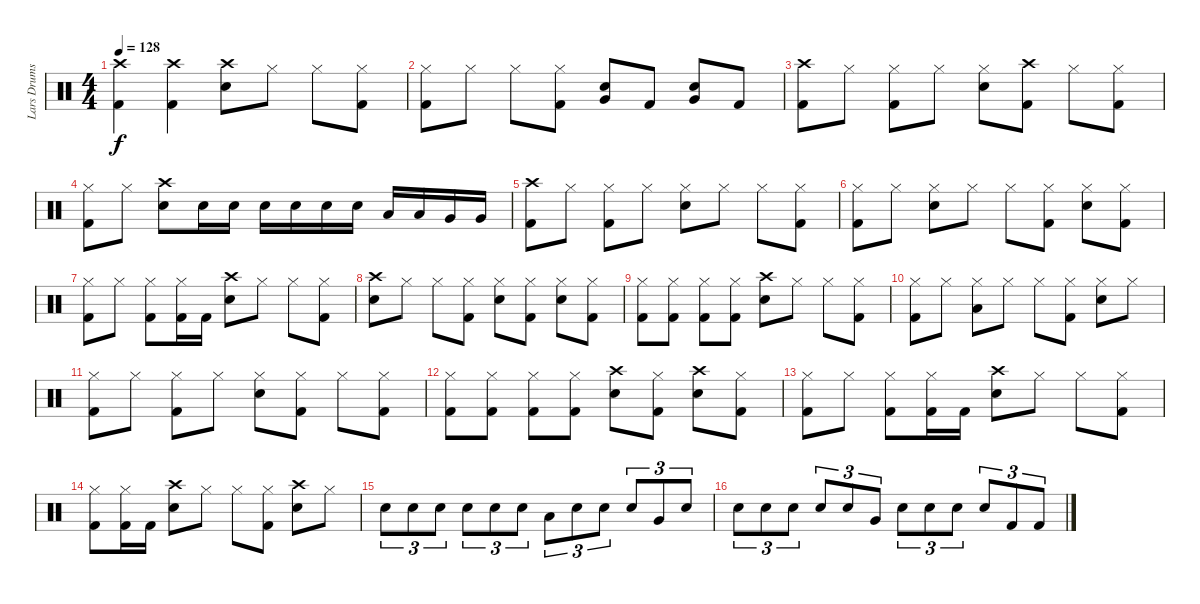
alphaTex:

\track ("Lars Drums" "Lars Drums") {instrument percussion}
\staff {score}
\articulation defaults
\ts (4 4)
\tempo 128
\clef neutral
\ks c
("Crash high (hit)" "Kick (hit) 2").4{dy f} ("Crash high (hit)" "Kick (hit) 2").4 ("Crash high (hit)" "Electric Snare (hit)").8 "Hi-Hat (closed)".8 "Hi-Hat (closed)".8 ("Hi-Hat (closed)" "Kick (hit) 2").8 |
("Hi-Hat (closed)" "Kick (hit) 2").8 "Hi-Hat (closed)".8 "Hi-Hat (closed)".8 ("Hi-Hat (closed)" "Kick (hit) 2").8 ("Electric Snare (hit)" "Very Low Tom (hit)").8 "Kick (hit) 2".8 ("Electric Snare (hit)" "Very Low Tom (hit)").8 "Kick (hit) 2".8 |
("Crash high (hit)" "Kick (hit) 2").8 "Hi-Hat (closed)".8 ("Hi-Hat (closed)" "Kick (hit) 2").8 "Hi-Hat (closed)".8 ("Hi-Hat (closed)" "Electric Snare (hit)").8 ("Crash high (hit)" "Kick (hit) 2").8 "Hi-Hat (closed)".8 ("Hi-Hat (closed)" "Kick (hit) 2").8 |
("Hi-Hat (closed)" "Kick (hit) 2").8 "Hi-Hat (closed)".8 ("Crash high (hit)" "Electric Snare (hit)").8 "Electric Snare (hit)".16 "Electric Snare (hit)".16 "Electric Snare (hit)".16 "Electric Snare (hit)".16 "Electric Snare (hit)".16 "Electric Snare (hit)".16 "Low Floor Tom (hit)".16 "Low Floor Tom (hit)".16 "Very Low Tom (hit)".16 "Very Low Tom (hit)".16 |
("Crash high (hit)" "Kick (hit) 2").8 "Hi-Hat (closed)".8 ("Hi-Hat (closed)" "Kick (hit) 2").8 "Hi-Hat (closed)".8 ("Hi-Hat (closed)" "Electric Snare (hit)").8 "Hi-Hat (closed)".8 "Hi-Hat (closed)".8 ("Hi-Hat (closed)" "Kick (hit) 2").8 |
("Hi-Hat (closed)" "Kick (hit) 2").8 "Hi-Hat (closed)".8 ("Hi-Hat (closed)" "Electric Snare (hit)").8 "Hi-Hat (closed)".8 "Hi-Hat (closed)".8 ("Hi-Hat (closed)" "Kick (hit) 2").8 ("Hi-Hat (closed)" "Electric Snare (hit)").8 ("Hi-Hat (closed)" "Kick (hit) 2").8 |
("Hi-Hat (closed)" "Kick (hit) 2").8 "Hi-Hat (closed)".8 ("Hi-Hat (closed)" "Kick (hit) 2").8 ("Hi-Hat (closed)" "Kick (hit) 2").16 "Kick (hit) 2".16 ("Crash high (hit)" "Electric Snare (hit)").8 "Hi-Hat (closed)".8 "Hi-Hat (closed)".8 ("Hi-Hat (closed)" "Kick (hit) 2").8 |
("Crash high (hit)" "Electric Snare (hit)").8 "Hi-Hat (closed)".8 "Hi-Hat (closed)".8 ("Hi-Hat (closed)" "Kick (hit) 2").8 ("Hi-Hat (closed)" "Electric Snare (hit)").8 ("Hi-Hat (closed)" "Kick (hit) 2").8 ("Hi-Hat (closed)" "Electric Snare (hit)").8 ("Hi-Hat (closed)" "Kick (hit) 2").8 |
("Hi-Hat (closed)" "Kick (hit) 2").8 ("Hi-Hat (closed)" "Kick (hit) 2").8 ("Hi-Hat (closed)" "Kick (hit) 2").8 ("Hi-Hat (closed)" "Kick (hit) 2").8 ("Crash high (hit)" "Electric Snare (hit)").8 "Hi-Hat (closed)".8 "Hi-Hat (closed)".8 ("Hi-Hat (closed)" "Kick (hit) 2").8 |
("Hi-Hat (closed)" "Kick (hit) 2").8 "Hi-Hat (closed)".8 ("Hi-Hat (closed)" "Low Floor Tom (hit)").8 "Hi-Hat (closed)".8 "Hi-Hat (closed)".8 ("Hi-Hat (closed)" "Kick (hit) 2").8 ("Hi-Hat (closed)" "Electric Snare (hit)").8 "Hi-Hat (closed)".8 |
("Hi-Hat (closed)" "Kick (hit) 2").8 "Hi-Hat (closed)".8 ("Hi-Hat (closed)" "Kick (hit) 2").8 "Hi-Hat (closed)".8 ("Hi-Hat (closed)" "Electric Snare (hit)").8 ("Hi-Hat (closed)" "Kick (hit) 2").8 "Hi-Hat (closed)".8 ("Hi-Hat (closed)" "Kick (hit) 2").8 |
("Hi-Hat (closed)" "Kick (hit) 2").8 ("Hi-Hat (closed)" "Kick (hit) 2").8 ("Hi-Hat (closed)" "Kick (hit) 2").8 ("Hi-Hat (closed)" "Kick (hit) 2").8 ("Crash high (hit)" "Electric Snare (hit)").8 ("Hi-Hat (closed)" "Kick (hit) 2").8 ("Crash high (hit)" "Electric Snare (hit)").8 ("Hi-Hat (closed)" "Kick (hit) 2").8 |
("Hi-Hat (closed)" "Kick (hit) 2").8 "Hi-Hat (closed)".8 ("Hi-Hat (closed)" "Kick (hit) 2").8 ("Hi-Hat (closed)" "Kick (hit) 2").16 "Kick (hit) 2".16 ("Crash high (hit)" "Electric Snare (hit)").8 "Hi-Hat (closed)".8 "Hi-Hat (closed)".8 ("Hi-Hat (closed)" "Kick (hit) 2").8 |
("Hi-Hat (closed)" "Kick (hit) 2").8 ("Hi-Hat (closed)" "Kick (hit) 2").16 "Kick (hit) 2".16 ("Crash high (hit)" "Electric Snare (hit)").8 "Hi-Hat (closed)".8 "Hi-Hat (closed)".8 ("Hi-Hat (closed)" "Kick (hit) 2").8 ("Crash high (hit)" "Electric Snare (hit)").8 "Hi-Hat (closed)".8 |
"Electric Snare (hit)".8{tu (3 2)} "Electric Snare (hit)".8{tu (3 2)} "Electric Snare (hit)".8{tu (3 2)} "Electric Snare (hit)".8{tu (3 2)} "Electric Snare (hit)".8{tu (3 2)} "Electric Snare (hit)".8{tu (3 2)} "Low Floor Tom (hit)".8{tu (3 2)} "Electric Snare (hit)".8{tu (3 2)} "Electric Snare (hit)".8{tu (3 2)} "Electric Snare (hit)".8{tu (3 2)} "Very Low Tom (hit)".8{tu (3 2)} "Electric Snare (hit)".8{tu (3 2)} |
"Electric Snare (hit)".8{tu (3 2)} "Electric Snare (hit)".8{tu (3 2)} "Electric Snare (hit)".8{tu (3 2)} "Electric Snare (hit)".8{tu (3 2)} "Electric Snare (hit)".8{tu (3 2)} "Very Low Tom (hit)".8{tu (3 2)} "Electric Snare (hit)".8{tu (3 2)} "Electric Snare (hit)".8{tu (3 2)} "Electric Snare (hit)".8{tu (3 2)} "Electric Snare (hit)".8{tu (3 2)} "Kick (hit) 2".8{tu (3 2)} "Kick (hit) 2".8{tu (3 2)}
